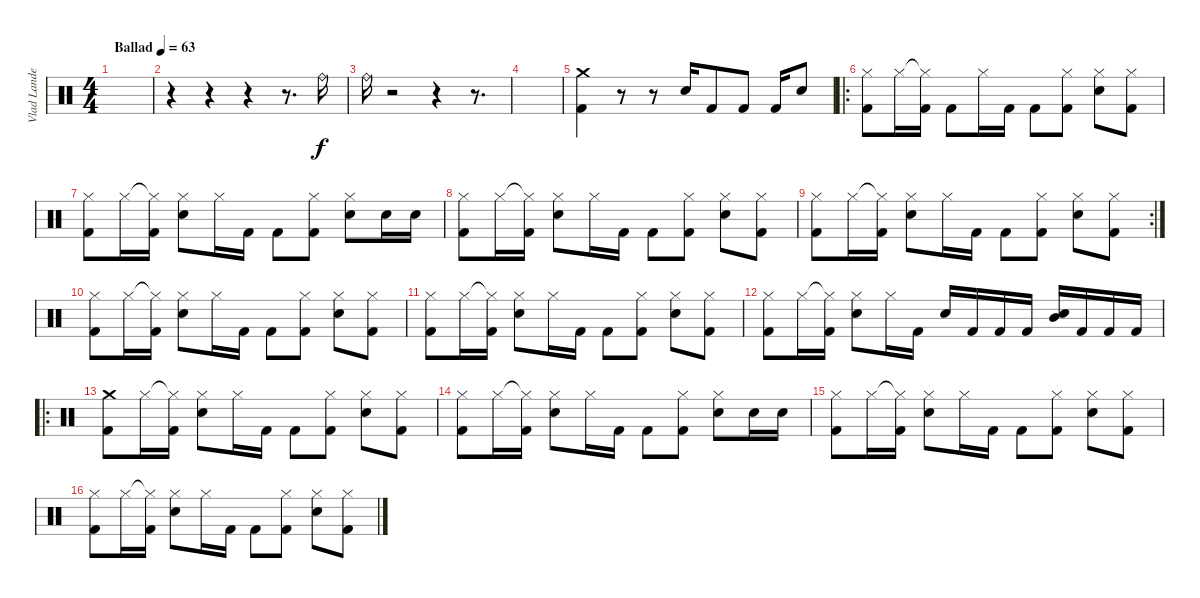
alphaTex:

\track ("Vlad Landeros" "Vlad Lande") {instrument percussion}
\staff {score}
\articulation defaults
\ts (4 4)
\tempo (63 "Ballad")
\clef neutral
\ks c
|
r.4 r.4 r.4 r.8{d} "Ride (bell)".16 |
"Ride (bell)".16 r.2 r.4 r.8{d} |
|
("Crash medium (hit)" "Kick (hit) 2").4 r.8 r.8 "Electric Snare (hit)".16 "Kick (hit) 2".8 "Kick (hit) 2".8 "Kick (hit) 2".16 "Electric Snare (hit)".8 |
\ro
("Hi-Hat (closed)" "Kick (hit) 2").8 "Hi-Hat (closed)".16 ("Hi-Hat (closed)"{t} "Kick (hit) 2").16 "Kick (hit) 2".8 "Hi-Hat (closed)".16 "Kick (hit) 2".16 "Kick (hit) 2".8 ("Hi-Hat (closed)" "Kick (hit) 2").8 ("Hi-Hat (closed)" "Electric Snare (hit)").8 ("Hi-Hat (closed)" "Kick (hit) 2").8 |
("Hi-Hat (closed)" "Kick (hit) 2").8 "Hi-Hat (closed)".16 ("Hi-Hat (closed)"{t} "Kick (hit) 2").16 ("Hi-Hat (closed)" "Electric Snare (hit)").8 "Hi-Hat (closed)".16 "Kick (hit) 2".16 "Kick (hit) 2".8 ("Hi-Hat (closed)" "Kick (hit) 2").8 ("Hi-Hat (closed)" "Electric Snare (hit)").8 "Electric Snare (hit)".16 "Electric Snare (hit)".16 |
("Hi-Hat (closed)" "Kick (hit) 2").8 "Hi-Hat (closed)".16 ("Hi-Hat (closed)"{t} "Kick (hit) 2").16 ("Hi-Hat (closed)" "Electric Snare (hit)").8 "Hi-Hat (closed)".16 "Kick (hit) 2".16 "Kick (hit) 2".8 ("Hi-Hat (closed)" "Kick (hit) 2").8 ("Hi-Hat (closed)" "Electric Snare (hit)").8 ("Hi-Hat (closed)" "Kick (hit) 2").8 |
\rc 2
("Hi-Hat (closed)" "Kick (hit) 2").8 "Hi-Hat (closed)".16 ("Hi-Hat (closed)"{t} "Kick (hit) 2").16 ("Hi-Hat (closed)" "Electric Snare (hit)").8 "Hi-Hat (closed)".16 "Kick (hit) 2".16 "Kick (hit) 2".8 ("Hi-Hat (closed)" "Kick (hit) 2").8 ("Hi-Hat (closed)" "Electric Snare (hit)").8 ("Hi-Hat (closed)" "Kick (hit) 2").8 |
("Hi-Hat (closed)" "Kick (hit) 2").8 "Hi-Hat (closed)".16 ("Hi-Hat (closed)"{t} "Kick (hit) 2").16 ("Hi-Hat (closed)" "Electric Snare (hit)").8 "Hi-Hat (closed)".16 "Kick (hit) 2".16 "Kick (hit) 2".8 ("Hi-Hat (closed)" "Kick (hit) 2").8 ("Hi-Hat (closed)" "Electric Snare (hit)").8 ("Hi-Hat (closed)" "Kick (hit) 2").8 |
("Hi-Hat (closed)" "Kick (hit) 2").8 "Hi-Hat (closed)".16 ("Hi-Hat (closed)"{t} "Kick (hit) 2").16 ("Hi-Hat (closed)" "Electric Snare (hit)").8 "Hi-Hat (closed)".16 "Kick (hit) 2".16 "Kick (hit) 2".8 ("Hi-Hat (closed)" "Kick (hit) 2").8 ("Hi-Hat (closed)" "Electric Snare (hit)").8 ("Hi-Hat (closed)" "Kick (hit) 2").8 |
("Hi-Hat (closed)" "Kick (hit) 2").8 "Hi-Hat (closed)".16 ("Hi-Hat (closed)"{t} "Kick (hit) 2").16 ("Hi-Hat (closed)" "Electric Snare (hit)").8 "Hi-Hat (closed)".16 "Kick (hit) 2".16 "Electric Snare (hit)".16 "Kick (hit) 2".16 "Kick (hit) 2".16 "Kick (hit) 2".16 ("Electric Snare (hit)" "Mid Tom (hit)").16 "Kick (hit) 2".16 "Kick (hit) 2".16 "Kick (hit) 2".16 |
\ro
("Kick (hit) 2" "Crash medium (hit)").8 "Hi-Hat (closed)".16 ("Hi-Hat (closed)"{t} "Kick (hit) 2").16 ("Electric Snare (hit)" "Hi-Hat (closed)").8 "Hi-Hat (closed)".16 "Kick (hit) 2".16 "Kick (hit) 2".8 ("Hi-Hat (closed)" "Kick (hit) 2").8 ("Hi-Hat (closed)" "Electric Snare (hit)").8 ("Hi-Hat (closed)" "Kick (hit) 2").8 |
("Hi-Hat (closed)" "Kick (hit) 2").8 "Hi-Hat (closed)".16 ("Hi-Hat (closed)"{t} "Kick (hit) 2").16 ("Hi-Hat (closed)" "Electric Snare (hit)").8 "Hi-Hat (closed)".16 "Kick (hit) 2".16 "Kick (hit) 2".8 ("Hi-Hat (closed)" "Kick (hit) 2").8 ("Hi-Hat (closed)" "Electric Snare (hit)").8 "Electric Snare (hit)".16 "Electric Snare (hit)".16 |
("Hi-Hat (closed)" "Kick (hit) 2").8 "Hi-Hat (closed)".16 ("Hi-Hat (closed)"{t} "Kick (hit) 2").16 ("Hi-Hat (closed)" "Electric Snare (hit)").8 "Hi-Hat (closed)".16 "Kick (hit) 2".16 "Kick (hit) 2".8 ("Hi-Hat (closed)" "Kick (hit) 2").8 ("Hi-Hat (closed)" "Electric Snare (hit)").8 ("Hi-Hat (closed)" "Kick (hit) 2").8 |
("Hi-Hat (closed)" "Kick (hit) 2").8 "Hi-Hat (closed)".16 ("Hi-Hat (closed)"{t} "Kick (hit) 2").16 ("Hi-Hat (closed)" "Electric Snare (hit)").8 "Hi-Hat (closed)".16 "Kick (hit) 2".16 "Kick (hit) 2".8 ("Hi-Hat (closed)" "Kick (hit) 2").8 ("Hi-Hat (closed)" "Electric Snare (hit)").8 ("Hi-Hat (closed)" "Kick (hit) 2").8
